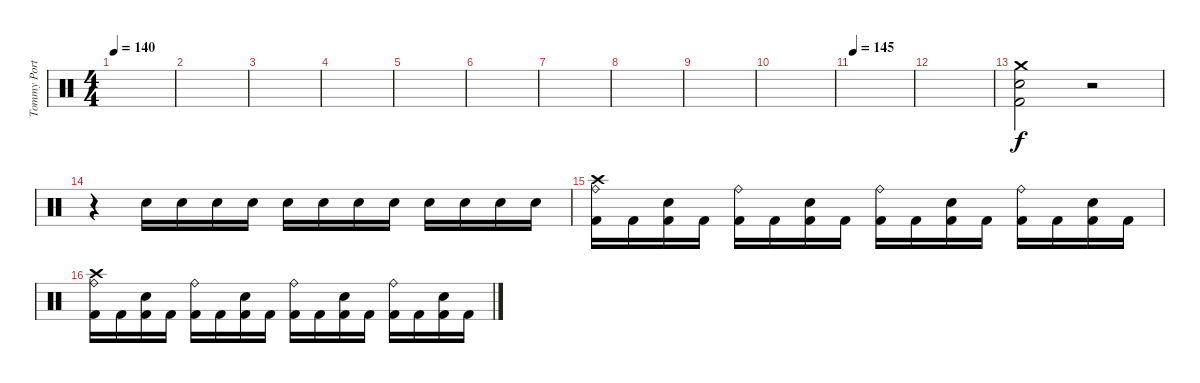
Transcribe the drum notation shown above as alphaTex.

\track ("Tommy Portino" "Tommy Port") {instrument percussion}
\staff {score}
\articulation defaults
\ts (4 4)
\tempo 140
\tempo 100
\tempo 140
\clef neutral
\ks c
|
|
|
|
|
|
|
|
|
|
\tempo 160
\tempo 145
|
|
("Electric Snare (hit)" "Kick (hit) 2" "Crash medium (hit)").2 r.2 |
r.4 "Electric Snare (hit)".16 "Electric Snare (hit)".16 "Electric Snare (hit)".16 "Electric Snare (hit)".16 "Electric Snare (hit)".16 "Electric Snare (hit)".16 "Electric Snare (hit)".16 "Electric Snare (hit)".16 "Electric Snare (hit)".16 "Electric Snare (hit)".16 "Electric Snare (hit)".16 "Electric Snare (hit)".16 |
("Kick (hit) 2" "Ride (bell)" "Crash high (hit)").16 "Kick (hit) 2".16 ("Kick (hit) 2" "Electric Snare (hit)").16 "Kick (hit) 2".16 ("Kick (hit) 2" "Ride (bell)").16 "Kick (hit) 2".16 ("Kick (hit) 2" "Electric Snare (hit)").16 "Kick (hit) 2".16 ("Kick (hit) 2" "Ride (bell)").16 "Kick (hit) 2".16 ("Kick (hit) 2" "Electric Snare (hit)").16 "Kick (hit) 2".16 ("Kick (hit) 2" "Ride (bell)").16 "Kick (hit) 2".16 ("Kick (hit) 2" "Electric Snare (hit)").16 "Kick (hit) 2".16 |
("Kick (hit) 2" "Ride (bell)" "Crash high (hit)").16 "Kick (hit) 2".16 ("Kick (hit) 2" "Electric Snare (hit)").16 "Kick (hit) 2".16 ("Kick (hit) 2" "Ride (bell)").16 "Kick (hit) 2".16 ("Kick (hit) 2" "Electric Snare (hit)").16 "Kick (hit) 2".16 ("Kick (hit) 2" "Ride (bell)").16 "Kick (hit) 2".16 ("Kick (hit) 2" "Electric Snare (hit)").16 "Kick (hit) 2".16 ("Kick (hit) 2" "Ride (bell)").16 "Kick (hit) 2".16 ("Kick (hit) 2" "Electric Snare (hit)").16 "Kick (hit) 2".16
